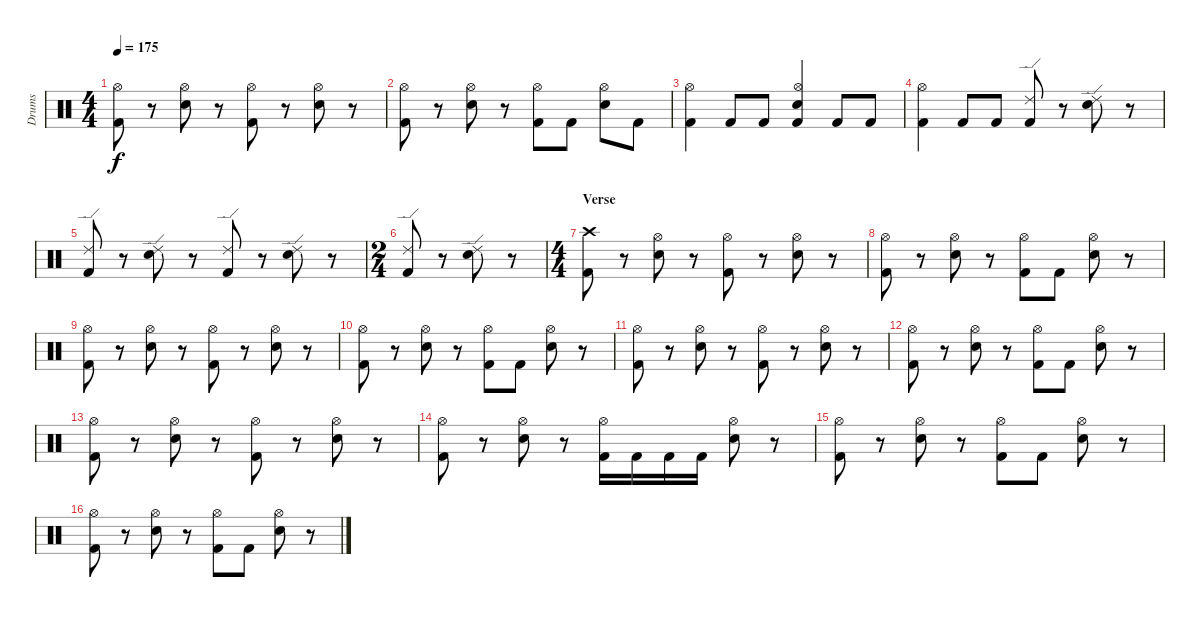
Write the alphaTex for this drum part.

\track ("Drums" "Drums") {instrument percussion}
\staff {score}
\articulation defaults
\ts (4 4)
\tempo 175
\clef neutral
\ks c
("Kick (hit) 2" "Hi-Hat (open)").8{dy f} r.8 ("Electric Snare (hit)" "Hi-Hat (open)").8 r.8 ("Kick (hit) 2" "Hi-Hat (open)").8 r.8 ("Electric Snare (hit)" "Hi-Hat (open)").8 r.8 |
("Kick (hit) 2" "Hi-Hat (open)").8 r.8 ("Electric Snare (hit)" "Hi-Hat (open)").8 r.8 ("Kick (hit) 2" "Hi-Hat (open)").8 "Kick (hit) 2".8 ("Electric Snare (hit)" "Hi-Hat (open)").8 "Kick (hit) 2".8 |
("Kick (hit) 2" "Hi-Hat (open)").4 "Kick (hit) 2".8 "Kick (hit) 2".8 ("Kick (hit) 2" "Electric Snare (hit)" "Hi-Hat (open)").4 "Kick (hit) 2".8 "Kick (hit) 2".8 |
("Kick (hit) 2" "Hi-Hat (open)").4 "Kick (hit) 2".8 "Kick (hit) 2".8 ("Kick (hit) 2" "Ride (edge) 2").8 r.8 ("Electric Snare (hit)" "Ride (edge) 2").8 r.8 |
("Kick (hit) 2" "Ride (edge) 2").8 r.8 ("Electric Snare (hit)" "Ride (edge) 2").8 r.8 ("Kick (hit) 2" "Ride (edge) 2").8 r.8 ("Electric Snare (hit)" "Ride (edge) 2").8 r.8 |
\ts (2 4)
("Kick (hit) 2" "Ride (edge) 2").8 r.8 ("Electric Snare (hit)" "Ride (edge) 2").8 r.8 |
\ts (4 4)
\section ("" "Verse")
("Kick (hit) 2" "Crash high (hit)").8 r.8 ("Electric Snare (hit)" "Hi-Hat (open)").8 r.8 ("Kick (hit) 2" "Hi-Hat (open)").8 r.8 ("Electric Snare (hit)" "Hi-Hat (open)").8 r.8 |
("Kick (hit) 2" "Hi-Hat (open)").8 r.8 ("Electric Snare (hit)" "Hi-Hat (open)").8 r.8 ("Kick (hit) 2" "Hi-Hat (open)").8 "Kick (hit) 2".8 ("Electric Snare (hit)" "Hi-Hat (open)").8 r.8 |
("Kick (hit) 2" "Hi-Hat (open)").8 r.8 ("Electric Snare (hit)" "Hi-Hat (open)").8 r.8 ("Kick (hit) 2" "Hi-Hat (open)").8 r.8 ("Electric Snare (hit)" "Hi-Hat (open)").8 r.8 |
("Kick (hit) 2" "Hi-Hat (open)").8 r.8 ("Electric Snare (hit)" "Hi-Hat (open)").8 r.8 ("Kick (hit) 2" "Hi-Hat (open)").8 "Kick (hit) 2".8 ("Electric Snare (hit)" "Hi-Hat (open)").8 r.8 |
("Kick (hit) 2" "Hi-Hat (open)").8 r.8 ("Electric Snare (hit)" "Hi-Hat (open)").8 r.8 ("Kick (hit) 2" "Hi-Hat (open)").8 r.8 ("Electric Snare (hit)" "Hi-Hat (open)").8 r.8 |
("Kick (hit) 2" "Hi-Hat (open)").8 r.8 ("Electric Snare (hit)" "Hi-Hat (open)").8 r.8 ("Kick (hit) 2" "Hi-Hat (open)").8 "Kick (hit) 2".8 ("Electric Snare (hit)" "Hi-Hat (open)").8 r.8 |
("Kick (hit) 2" "Hi-Hat (open)").8 r.8 ("Electric Snare (hit)" "Hi-Hat (open)").8 r.8 ("Kick (hit) 2" "Hi-Hat (open)").8 r.8 ("Electric Snare (hit)" "Hi-Hat (open)").8 r.8 |
("Kick (hit) 2" "Hi-Hat (open)").8 r.8 ("Electric Snare (hit)" "Hi-Hat (open)").8 r.8 ("Kick (hit) 2" "Hi-Hat (open)").16 "Kick (hit) 2".16 "Kick (hit) 2".16 "Kick (hit) 2".16 ("Electric Snare (hit)" "Hi-Hat (open)").8 r.8 |
("Kick (hit) 2" "Hi-Hat (open)").8 r.8 ("Electric Snare (hit)" "Hi-Hat (open)").8 r.8 ("Kick (hit) 2" "Hi-Hat (open)").8 "Kick (hit) 2".8 ("Electric Snare (hit)" "Hi-Hat (open)").8 r.8 |
("Kick (hit) 2" "Hi-Hat (open)").8 r.8 ("Electric Snare (hit)" "Hi-Hat (open)").8 r.8 ("Kick (hit) 2" "Hi-Hat (open)").8 "Kick (hit) 2".8 ("Electric Snare (hit)" "Hi-Hat (open)").8 r.8
